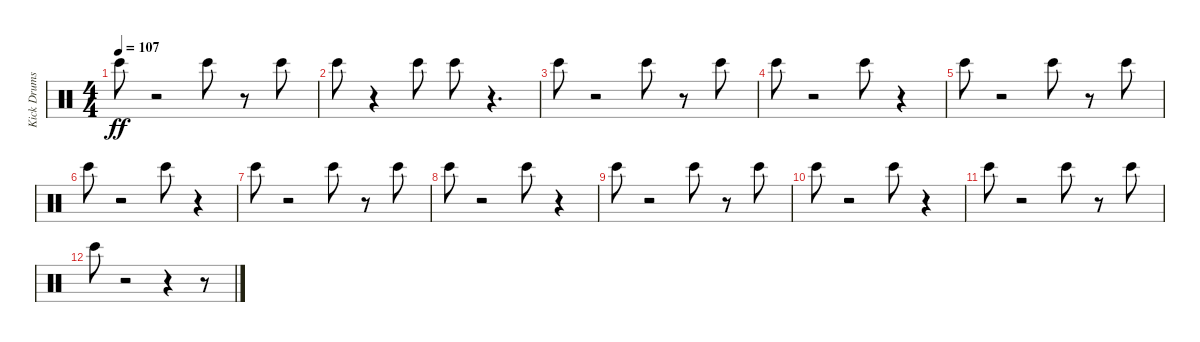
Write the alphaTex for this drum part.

\track ("Kick Drums" "Kick Drums") {instrument percussion}
\staff {score}
\articulation defaults
\ts (4 4)
\tempo 107
\clef neutral
\ks c "Bongo High (hit)".8{dy ff}
r.2 "Bongo High (hit)".8 r.8 "Bongo High (hit)".8 |
"Bongo High (hit)".8 r.4 "Bongo High (hit)".8 "Bongo High (hit)".8 r.4{d} |
"Bongo High (hit)".8 r.2 "Bongo High (hit)".8 r.8 "Bongo High (hit)".8 |
"Bongo High (hit)".8 r.2 "Bongo High (hit)".8 r.4 |
"Bongo High (hit)".8 r.2 "Bongo High (hit)".8 r.8 "Bongo High (hit)".8 |
"Bongo High (hit)".8 r.2 "Bongo High (hit)".8 r.4 |
"Bongo High (hit)".8 r.2 "Bongo High (hit)".8 r.8 "Bongo High (hit)".8 |
"Bongo High (hit)".8 r.2 "Bongo High (hit)".8 r.4 |
"Bongo High (hit)".8 r.2 "Bongo High (hit)".8 r.8 "Bongo High (hit)".8 |
"Bongo High (hit)".8 r.2 "Bongo High (hit)".8 r.4 |
"Bongo High (hit)".8 r.2 "Bongo High (hit)".8 r.8 "Bongo High (hit)".8 |
"Bongo High (hit)".8 r.2 r.4 r.8
